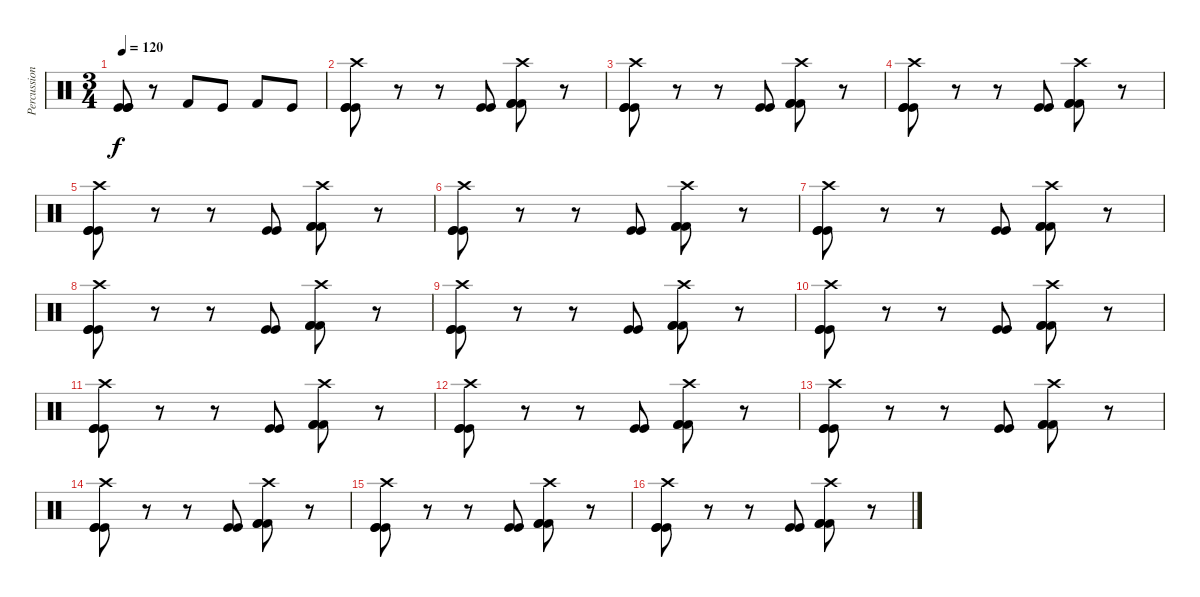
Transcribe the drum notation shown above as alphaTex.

\track ("Percussions" "Percussion") {instrument percussion}
\staff {score}
\articulation defaults
\ts (3 4)
\tempo 120
\clef neutral
\ks c
("Kick (hit)" "Kick (hit)" "Kick (hit)").8{dy f} r.8 "Kick (hit) 2".8 "Kick (hit)".8 "Kick (hit) 2".8 "Kick (hit)".8 |
("Kick (hit)" "Kick (hit)" "Kick (hit)" "Crash high (hit)").8 r.8 r.8 ("Kick (hit)" "Kick (hit)").8 ("Kick (hit) 2" "Kick (hit) 2" "Kick (hit) 2" "Crash high (hit)").8 r.8 |
("Kick (hit)" "Kick (hit)" "Kick (hit)" "Crash high (hit)").8 r.8 r.8 ("Kick (hit)" "Kick (hit)").8 ("Kick (hit) 2" "Kick (hit) 2" "Kick (hit) 2" "Crash high (hit)").8 r.8 |
("Kick (hit)" "Kick (hit)" "Kick (hit)" "Crash high (hit)").8 r.8 r.8 ("Kick (hit)" "Kick (hit)").8 ("Kick (hit) 2" "Kick (hit) 2" "Kick (hit) 2" "Crash high (hit)").8 r.8 |
("Kick (hit)" "Kick (hit)" "Kick (hit)" "Crash high (hit)").8 r.8 r.8 ("Kick (hit)" "Kick (hit)").8 ("Kick (hit) 2" "Kick (hit) 2" "Kick (hit) 2" "Crash high (hit)").8 r.8 |
("Kick (hit)" "Kick (hit)" "Kick (hit)" "Crash high (hit)").8 r.8 r.8 ("Kick (hit)" "Kick (hit)").8 ("Kick (hit) 2" "Kick (hit) 2" "Kick (hit) 2" "Crash high (hit)").8 r.8 |
("Kick (hit)" "Kick (hit)" "Kick (hit)" "Crash high (hit)").8 r.8 r.8 ("Kick (hit)" "Kick (hit)").8 ("Kick (hit) 2" "Kick (hit) 2" "Kick (hit) 2" "Crash high (hit)").8 r.8 |
("Kick (hit)" "Kick (hit)" "Kick (hit)" "Crash high (hit)").8 r.8 r.8 ("Kick (hit)" "Kick (hit)").8 ("Kick (hit) 2" "Kick (hit) 2" "Kick (hit) 2" "Crash high (hit)").8 r.8 |
("Kick (hit)" "Kick (hit)" "Kick (hit)" "Crash high (hit)").8 r.8 r.8 ("Kick (hit)" "Kick (hit)").8 ("Kick (hit) 2" "Kick (hit) 2" "Kick (hit) 2" "Crash high (hit)").8 r.8 |
("Kick (hit)" "Kick (hit)" "Kick (hit)" "Crash high (hit)").8 r.8 r.8 ("Kick (hit)" "Kick (hit)").8 ("Kick (hit) 2" "Kick (hit) 2" "Kick (hit) 2" "Crash high (hit)").8 r.8 |
("Kick (hit)" "Kick (hit)" "Kick (hit)" "Crash high (hit)").8 r.8 r.8 ("Kick (hit)" "Kick (hit)").8 ("Kick (hit) 2" "Kick (hit) 2" "Kick (hit) 2" "Crash high (hit)").8 r.8 |
("Kick (hit)" "Kick (hit)" "Kick (hit)" "Crash high (hit)").8 r.8 r.8 ("Kick (hit)" "Kick (hit)").8 ("Kick (hit) 2" "Kick (hit) 2" "Kick (hit) 2" "Crash high (hit)").8 r.8 |
("Kick (hit)" "Kick (hit)" "Kick (hit)" "Crash high (hit)").8 r.8 r.8 ("Kick (hit)" "Kick (hit)").8 ("Kick (hit) 2" "Kick (hit) 2" "Kick (hit) 2" "Crash high (hit)").8 r.8 |
("Kick (hit)" "Kick (hit)" "Kick (hit)" "Crash high (hit)").8 r.8 r.8 ("Kick (hit)" "Kick (hit)").8 ("Kick (hit) 2" "Kick (hit) 2" "Kick (hit) 2" "Crash high (hit)").8 r.8 |
("Kick (hit)" "Kick (hit)" "Kick (hit)" "Crash high (hit)").8 r.8 r.8 ("Kick (hit)" "Kick (hit)").8 ("Kick (hit) 2" "Kick (hit) 2" "Kick (hit) 2" "Crash high (hit)").8 r.8 |
("Kick (hit)" "Kick (hit)" "Kick (hit)" "Crash high (hit)").8 r.8 r.8 ("Kick (hit)" "Kick (hit)").8 ("Kick (hit) 2" "Kick (hit) 2" "Kick (hit) 2" "Crash high (hit)").8 r.8
